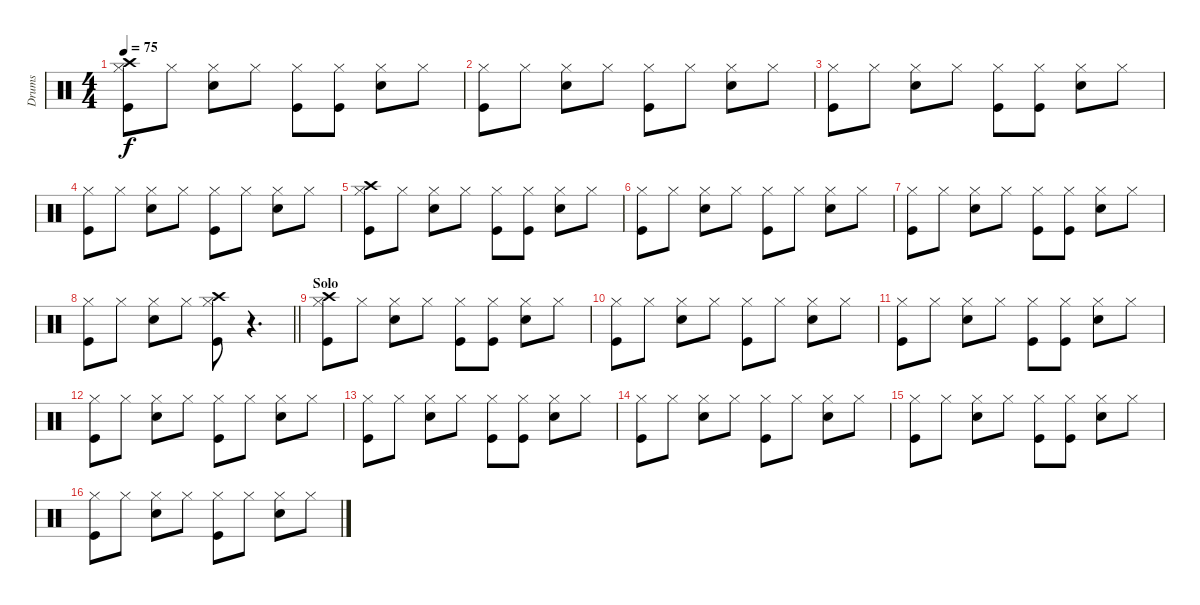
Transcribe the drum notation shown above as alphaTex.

\track ("Drums" "Drums") {instrument percussion}
\staff {score}
\articulation defaults
\ts (4 4)
\tempo 75
\clef neutral
\ks c
("Crash high (hit)" "Hi-Hat (closed)" "Kick (hit)").8{dy f} "Hi-Hat (closed)".8 ("Hi-Hat (closed)" "Snare (hit) 2").8 "Hi-Hat (closed)".8 ("Hi-Hat (closed)" "Kick (hit)").8 ("Hi-Hat (closed)" "Kick (hit)").8 ("Hi-Hat (closed)" "Snare (hit) 2").8 "Hi-Hat (closed)".8 |
("Hi-Hat (closed)" "Kick (hit)").8 "Hi-Hat (closed)".8 ("Hi-Hat (closed)" "Snare (hit) 2").8 "Hi-Hat (closed)".8 ("Hi-Hat (closed)" "Kick (hit)").8 "Hi-Hat (closed)".8 ("Hi-Hat (closed)" "Snare (hit) 2").8 "Hi-Hat (closed)".8 |
("Hi-Hat (closed)" "Kick (hit)").8 "Hi-Hat (closed)".8 ("Hi-Hat (closed)" "Snare (hit) 2").8 "Hi-Hat (closed)".8 ("Hi-Hat (closed)" "Kick (hit)").8 ("Hi-Hat (closed)" "Kick (hit)").8 ("Hi-Hat (closed)" "Snare (hit) 2").8 "Hi-Hat (closed)".8 |
("Hi-Hat (closed)" "Kick (hit)").8 "Hi-Hat (closed)".8 ("Hi-Hat (closed)" "Snare (hit) 2").8 "Hi-Hat (closed)".8 ("Hi-Hat (closed)" "Kick (hit)").8 "Hi-Hat (closed)".8 ("Hi-Hat (closed)" "Snare (hit) 2").8 "Hi-Hat (closed)".8 |
("Crash high (hit)" "Hi-Hat (closed)" "Kick (hit)").8 "Hi-Hat (closed)".8 ("Hi-Hat (closed)" "Snare (hit) 2").8 "Hi-Hat (closed)".8 ("Hi-Hat (closed)" "Kick (hit)").8 ("Hi-Hat (closed)" "Kick (hit)").8 ("Hi-Hat (closed)" "Snare (hit) 2").8 "Hi-Hat (closed)".8 |
("Hi-Hat (closed)" "Kick (hit)").8 "Hi-Hat (closed)".8 ("Hi-Hat (closed)" "Snare (hit) 2").8 "Hi-Hat (closed)".8 ("Hi-Hat (closed)" "Kick (hit)").8 "Hi-Hat (closed)".8 ("Hi-Hat (closed)" "Snare (hit) 2").8 "Hi-Hat (closed)".8 |
("Hi-Hat (closed)" "Kick (hit)").8 "Hi-Hat (closed)".8 ("Hi-Hat (closed)" "Snare (hit) 2").8 "Hi-Hat (closed)".8 ("Hi-Hat (closed)" "Kick (hit)").8 ("Hi-Hat (closed)" "Kick (hit)").8 ("Hi-Hat (closed)" "Snare (hit) 2").8 "Hi-Hat (closed)".8 |
\barLineRight lightlight
("Hi-Hat (closed)" "Kick (hit)").8 "Hi-Hat (closed)".8 ("Hi-Hat (closed)" "Snare (hit) 2").8 "Hi-Hat (closed)".8 ("Crash high (hit)" "Hi-Hat (closed)" "Kick (hit)").8 r.4{d} |
\section ("" "Solo")
("Crash high (hit)" "Hi-Hat (closed)" "Kick (hit)").8 "Hi-Hat (closed)".8 ("Hi-Hat (closed)" "Snare (hit) 2").8 "Hi-Hat (closed)".8 ("Hi-Hat (closed)" "Kick (hit)").8 ("Hi-Hat (closed)" "Kick (hit)").8 ("Hi-Hat (closed)" "Snare (hit) 2").8 "Hi-Hat (closed)".8 |
("Hi-Hat (closed)" "Kick (hit)").8 "Hi-Hat (closed)".8 ("Hi-Hat (closed)" "Snare (hit) 2").8 "Hi-Hat (closed)".8 ("Hi-Hat (closed)" "Kick (hit)").8 "Hi-Hat (closed)".8 ("Hi-Hat (closed)" "Snare (hit) 2").8 "Hi-Hat (closed)".8 |
("Hi-Hat (closed)" "Kick (hit)").8 "Hi-Hat (closed)".8 ("Hi-Hat (closed)" "Snare (hit) 2").8 "Hi-Hat (closed)".8 ("Hi-Hat (closed)" "Kick (hit)").8 ("Hi-Hat (closed)" "Kick (hit)").8 ("Hi-Hat (closed)" "Snare (hit) 2").8 "Hi-Hat (closed)".8 |
("Hi-Hat (closed)" "Kick (hit)").8 "Hi-Hat (closed)".8 ("Hi-Hat (closed)" "Snare (hit) 2").8 "Hi-Hat (closed)".8 ("Hi-Hat (closed)" "Kick (hit)").8 "Hi-Hat (closed)".8 ("Hi-Hat (closed)" "Snare (hit) 2").8 "Hi-Hat (closed)".8 |
("Hi-Hat (closed)" "Kick (hit)").8 "Hi-Hat (closed)".8 ("Hi-Hat (closed)" "Snare (hit) 2").8 "Hi-Hat (closed)".8 ("Hi-Hat (closed)" "Kick (hit)").8 ("Hi-Hat (closed)" "Kick (hit)").8 ("Hi-Hat (closed)" "Snare (hit) 2").8 "Hi-Hat (closed)".8 |
("Hi-Hat (closed)" "Kick (hit)").8 "Hi-Hat (closed)".8 ("Hi-Hat (closed)" "Snare (hit) 2").8 "Hi-Hat (closed)".8 ("Hi-Hat (closed)" "Kick (hit)").8 "Hi-Hat (closed)".8 ("Hi-Hat (closed)" "Snare (hit) 2").8 "Hi-Hat (closed)".8 |
("Hi-Hat (closed)" "Kick (hit)").8 "Hi-Hat (closed)".8 ("Hi-Hat (closed)" "Snare (hit) 2").8 "Hi-Hat (closed)".8 ("Hi-Hat (closed)" "Kick (hit)").8 ("Hi-Hat (closed)" "Kick (hit)").8 ("Hi-Hat (closed)" "Snare (hit) 2").8 "Hi-Hat (closed)".8 |
("Hi-Hat (closed)" "Kick (hit)").8 "Hi-Hat (closed)".8 ("Hi-Hat (closed)" "Snare (hit) 2").8 "Hi-Hat (closed)".8 ("Hi-Hat (closed)" "Kick (hit)").8 "Hi-Hat (closed)".8 ("Hi-Hat (closed)" "Snare (hit) 2").8 "Hi-Hat (closed)".8
